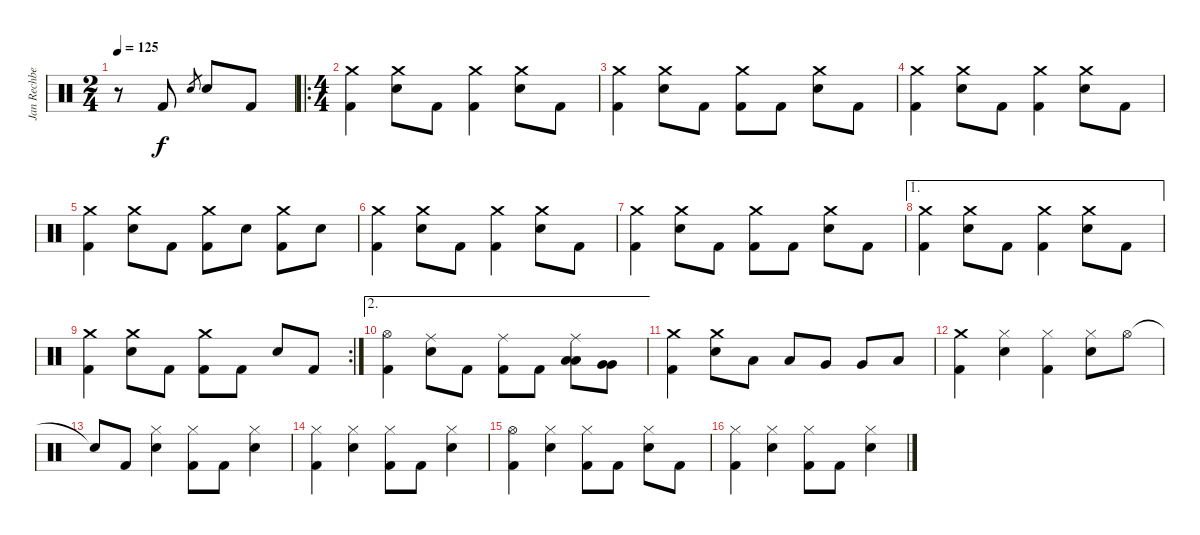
\track ("Jan Rechberger" "Jan Rechbe") {instrument percussion}
\staff {score}
\articulation defaults
\ts (2 4)
\section ("" "")
\tempo 125
\clef neutral
\ks c
r.8{dy f} "Kick (hit) 2".8 "Electric Snare (hit)".8{gr} "Electric Snare (hit)".8 "Kick (hit) 2".8 |
\ro
\ts (4 4)
("Crash medium (hit)" "Kick (hit) 2").4 ("Crash medium (hit)" "Electric Snare (hit)").8 "Kick (hit) 2".8 ("Crash medium (hit)" "Kick (hit) 2").4 ("Crash medium (hit)" "Electric Snare (hit)").8 "Kick (hit) 2".8 |
("Crash medium (hit)" "Kick (hit) 2").4 ("Crash medium (hit)" "Electric Snare (hit)").8 "Kick (hit) 2".8 ("Crash medium (hit)" "Kick (hit) 2").8 "Kick (hit) 2".8 ("Crash medium (hit)" "Electric Snare (hit)").8 "Kick (hit) 2".8 |
("Crash medium (hit)" "Kick (hit) 2").4 ("Crash medium (hit)" "Electric Snare (hit)").8 "Kick (hit) 2".8 ("Crash medium (hit)" "Kick (hit) 2").4 ("Crash medium (hit)" "Electric Snare (hit)").8 "Kick (hit) 2".8 |
("Crash medium (hit)" "Kick (hit) 2").4 ("Crash medium (hit)" "Electric Snare (hit)").8 "Kick (hit) 2".8 ("Crash medium (hit)" "Kick (hit) 2").8 "Electric Snare (hit)".8 ("Crash medium (hit)" "Kick (hit) 2").8 "Electric Snare (hit)".8 |
("Crash medium (hit)" "Kick (hit) 2").4 ("Crash medium (hit)" "Electric Snare (hit)").8 "Kick (hit) 2".8 ("Crash medium (hit)" "Kick (hit) 2").4 ("Crash medium (hit)" "Electric Snare (hit)").8 "Kick (hit) 2".8 |
("Crash medium (hit)" "Kick (hit) 2").4 ("Crash medium (hit)" "Electric Snare (hit)").8 "Kick (hit) 2".8 ("Crash medium (hit)" "Kick (hit) 2").8 "Kick (hit) 2".8 ("Crash medium (hit)" "Electric Snare (hit)").8 "Kick (hit) 2".8 |
\ae 1
("Crash medium (hit)" "Kick (hit) 2").4 ("Crash medium (hit)" "Electric Snare (hit)").8 "Kick (hit) 2".8 ("Crash medium (hit)" "Kick (hit) 2").4 ("Crash medium (hit)" "Electric Snare (hit)").8 "Kick (hit) 2".8 |
\rc 2
("Crash medium (hit)" "Kick (hit) 2").4 ("Crash medium (hit)" "Electric Snare (hit)").8 "Kick (hit) 2".8 ("Crash medium (hit)" "Kick (hit) 2").8 "Kick (hit) 2".8 "Electric Snare (hit)".8 "Kick (hit) 2".8 |
\ae 2
("Hi-Hat (open)" "Kick (hit) 2").4 ("Ride (middle)" "Electric Snare (hit)").8 "Kick (hit) 2".8 ("Ride (middle)" "Kick (hit) 2").8 "Kick (hit) 2".8 ("Ride (middle)" "Low Tom (hit)" "Low Tom (hit)").8 ("Very Low Tom (hit)" "Very Low Tom (hit)").8 |
("Crash medium (hit)" "Kick (hit) 2").4 ("Crash medium (hit)" "Electric Snare (hit)").8 "Low Tom (hit)".8 "Low Tom (hit)".8 "Very Low Tom (hit)".8 "Very Low Tom (hit)".8 "Low Floor Tom (hit)".8 |
("Crash medium (hit)" "Kick (hit) 2").4 ("Hi-Hat (closed)" "Electric Snare (hit)").4 ("Hi-Hat (closed)" "Kick (hit) 2").4 ("Hi-Hat (closed)" "Electric Snare (hit)").8 "Hi-Hat (open)".8 |
"Snare (hit)"{t}.8 "Kick (hit) 2".8 ("Hi-Hat (closed)" "Electric Snare (hit)").4 ("Hi-Hat (closed)" "Kick (hit) 2").8 "Kick (hit) 2".8 ("Hi-Hat (closed)" "Electric Snare (hit)").4 |
("Hi-Hat (closed)" "Kick (hit) 2").4 ("Hi-Hat (closed)" "Electric Snare (hit)").4 ("Hi-Hat (closed)" "Kick (hit) 2").8 "Kick (hit) 2".8 ("Hi-Hat (closed)" "Electric Snare (hit)").4 |
("Hi-Hat (open)" "Kick (hit) 2").4 ("Hi-Hat (closed)" "Electric Snare (hit)").4 ("Hi-Hat (closed)" "Kick (hit) 2").8 "Kick (hit) 2".8 ("Hi-Hat (closed)" "Electric Snare (hit)").8 "Kick (hit) 2".8 |
("Hi-Hat (closed)" "Kick (hit) 2").4 ("Hi-Hat (closed)" "Electric Snare (hit)").4 ("Hi-Hat (closed)" "Kick (hit) 2").8 "Kick (hit) 2".8 ("Hi-Hat (closed)" "Electric Snare (hit)").4
